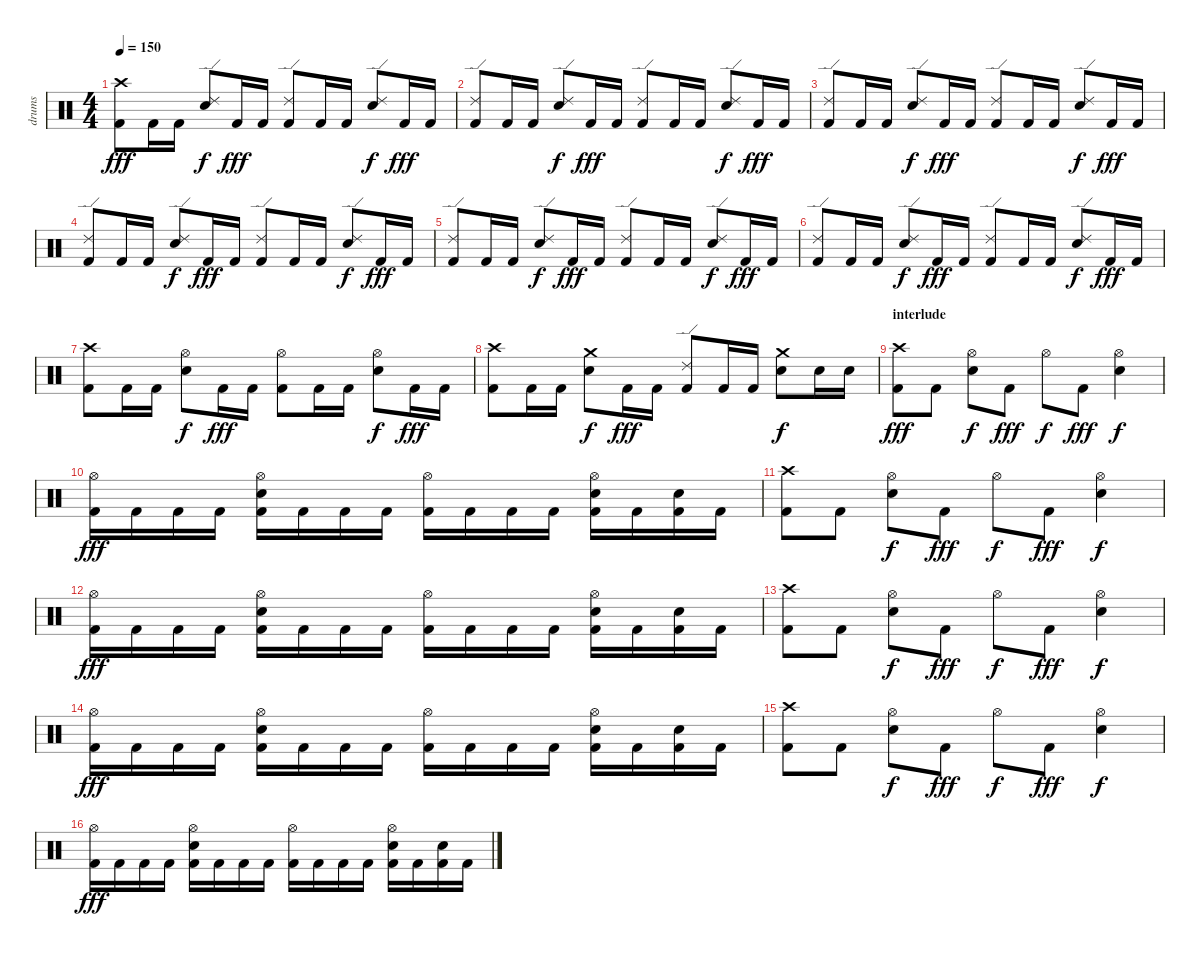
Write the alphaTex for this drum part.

\track ("drums" "drums") {instrument percussion}
\staff {score}
\articulation defaults
\ts (4 4)
\tempo 150
\clef neutral
\ks c
("Crash high (hit)" "Kick (hit) 2").8{dy fff} "Kick (hit) 2".16 "Kick (hit) 2".16 ("Ride (edge) 2" "Snare (hit) 2").8{dy f} "Kick (hit) 2".16{dy fff} "Kick (hit) 2".16 ("Ride (edge) 2" "Kick (hit) 2").8 "Kick (hit) 2".16 "Kick (hit) 2".16 ("Ride (edge) 2" "Snare (hit) 2").8{dy f} "Kick (hit) 2".16{dy fff} "Kick (hit) 2".16 |
("Ride (edge) 2" "Kick (hit) 2").8 "Kick (hit) 2".16 "Kick (hit) 2".16 ("Ride (edge) 2" "Snare (hit) 2").8{dy f} "Kick (hit) 2".16{dy fff} "Kick (hit) 2".16 ("Ride (edge) 2" "Kick (hit) 2").8 "Kick (hit) 2".16 "Kick (hit) 2".16 ("Ride (edge) 2" "Snare (hit) 2").8{dy f} "Kick (hit) 2".16{dy fff} "Kick (hit) 2".16 |
("Ride (edge) 2" "Kick (hit) 2").8 "Kick (hit) 2".16 "Kick (hit) 2".16 ("Ride (edge) 2" "Snare (hit) 2").8{dy f} "Kick (hit) 2".16{dy fff} "Kick (hit) 2".16 ("Ride (edge) 2" "Kick (hit) 2").8 "Kick (hit) 2".16 "Kick (hit) 2".16 ("Ride (edge) 2" "Snare (hit) 2").8{dy f} "Kick (hit) 2".16{dy fff} "Kick (hit) 2".16 |
("Ride (edge) 2" "Kick (hit) 2").8 "Kick (hit) 2".16 "Kick (hit) 2".16 ("Ride (edge) 2" "Snare (hit) 2").8{dy f} "Kick (hit) 2".16{dy fff} "Kick (hit) 2".16 ("Ride (edge) 2" "Kick (hit) 2").8 "Kick (hit) 2".16 "Kick (hit) 2".16 ("Ride (edge) 2" "Snare (hit) 2").8{dy f} "Kick (hit) 2".16{dy fff} "Kick (hit) 2".16 |
("Ride (edge) 2" "Kick (hit) 2").8 "Kick (hit) 2".16 "Kick (hit) 2".16 ("Ride (edge) 2" "Snare (hit) 2").8{dy f} "Kick (hit) 2".16{dy fff} "Kick (hit) 2".16 ("Ride (edge) 2" "Kick (hit) 2").8 "Kick (hit) 2".16 "Kick (hit) 2".16 ("Ride (edge) 2" "Snare (hit) 2").8{dy f} "Kick (hit) 2".16{dy fff} "Kick (hit) 2".16 |
("Ride (edge) 2" "Kick (hit) 2").8 "Kick (hit) 2".16 "Kick (hit) 2".16 ("Ride (edge) 2" "Snare (hit) 2").8{dy f} "Kick (hit) 2".16{dy fff} "Kick (hit) 2".16 ("Ride (edge) 2" "Kick (hit) 2").8 "Kick (hit) 2".16 "Kick (hit) 2".16 ("Ride (edge) 2" "Snare (hit) 2").8{dy f} "Kick (hit) 2".16{dy fff} "Kick (hit) 2".16 |
("Crash high (hit)" "Kick (hit) 2").8 "Kick (hit) 2".16 "Kick (hit) 2".16 ("Hi-Hat (open)" "Snare (hit) 2").8{dy f} "Kick (hit) 2".16{dy fff} "Kick (hit) 2".16 ("Hi-Hat (open)" "Kick (hit) 2").8 "Kick (hit) 2".16 "Kick (hit) 2".16 ("Hi-Hat (open)" "Snare (hit) 2").8{dy f} "Kick (hit) 2".16{dy fff} "Kick (hit) 2".16 |
("Crash high (hit)" "Kick (hit) 2").8 "Kick (hit) 2".16 "Kick (hit) 2".16 ("Crash medium (hit)" "Snare (hit) 2").8{dy f} "Kick (hit) 2".16{dy fff} "Kick (hit) 2".16 ("Ride (edge) 2" "Kick (hit) 2").8 "Kick (hit) 2".16 "Kick (hit) 2".16 ("Crash medium (hit)" "Snare (hit) 2").8{dy f} "Snare (hit) 2".16 "Snare (hit) 2".16 |
\section ("" "interlude")
("Crash high (hit)" "Kick (hit) 2").8{dy fff} "Kick (hit) 2".8 ("Hi-Hat (open)" "Snare (hit) 2").8{dy f} "Kick (hit) 2".8{dy fff} "Hi-Hat (open)".8{dy f} "Kick (hit) 2".8{dy fff} ("Hi-Hat (open)" "Snare (hit) 2").4{dy f} |
("Hi-Hat (open)" "Kick (hit) 2").16{dy fff} "Kick (hit) 2".16 "Kick (hit) 2".16 "Kick (hit) 2".16 ("Hi-Hat (open)" "Snare (hit) 2" "Kick (hit) 2").16 "Kick (hit) 2".16 "Kick (hit) 2".16 "Kick (hit) 2".16 ("Hi-Hat (open)" "Kick (hit) 2").16 "Kick (hit) 2".16 "Kick (hit) 2".16 "Kick (hit) 2".16 ("Hi-Hat (open)" "Snare (hit) 2" "Kick (hit) 2").16 "Kick (hit) 2".16 ("Snare (hit) 2" "Kick (hit) 2").16 "Kick (hit) 2".16 |
("Crash high (hit)" "Kick (hit) 2").8 "Kick (hit) 2".8 ("Hi-Hat (open)" "Snare (hit) 2").8{dy f} "Kick (hit) 2".8{dy fff} "Hi-Hat (open)".8{dy f} "Kick (hit) 2".8{dy fff} ("Hi-Hat (open)" "Snare (hit) 2").4{dy f} |
("Hi-Hat (open)" "Kick (hit) 2").16{dy fff} "Kick (hit) 2".16 "Kick (hit) 2".16 "Kick (hit) 2".16 ("Hi-Hat (open)" "Snare (hit) 2" "Kick (hit) 2").16 "Kick (hit) 2".16 "Kick (hit) 2".16 "Kick (hit) 2".16 ("Hi-Hat (open)" "Kick (hit) 2").16 "Kick (hit) 2".16 "Kick (hit) 2".16 "Kick (hit) 2".16 ("Hi-Hat (open)" "Snare (hit) 2" "Kick (hit) 2").16 "Kick (hit) 2".16 ("Snare (hit) 2" "Kick (hit) 2").16 "Kick (hit) 2".16 |
("Crash high (hit)" "Kick (hit) 2").8 "Kick (hit) 2".8 ("Hi-Hat (open)" "Snare (hit) 2").8{dy f} "Kick (hit) 2".8{dy fff} "Hi-Hat (open)".8{dy f} "Kick (hit) 2".8{dy fff} ("Hi-Hat (open)" "Snare (hit) 2").4{dy f} |
("Hi-Hat (open)" "Kick (hit) 2").16{dy fff} "Kick (hit) 2".16 "Kick (hit) 2".16 "Kick (hit) 2".16 ("Hi-Hat (open)" "Snare (hit) 2" "Kick (hit) 2").16 "Kick (hit) 2".16 "Kick (hit) 2".16 "Kick (hit) 2".16 ("Hi-Hat (open)" "Kick (hit) 2").16 "Kick (hit) 2".16 "Kick (hit) 2".16 "Kick (hit) 2".16 ("Hi-Hat (open)" "Snare (hit) 2" "Kick (hit) 2").16 "Kick (hit) 2".16 ("Snare (hit) 2" "Kick (hit) 2").16 "Kick (hit) 2".16 |
("Crash high (hit)" "Kick (hit) 2").8 "Kick (hit) 2".8 ("Hi-Hat (open)" "Snare (hit) 2").8{dy f} "Kick (hit) 2".8{dy fff} "Hi-Hat (open)".8{dy f} "Kick (hit) 2".8{dy fff} ("Hi-Hat (open)" "Snare (hit) 2").4{dy f} |
("Hi-Hat (open)" "Kick (hit) 2").16{dy fff} "Kick (hit) 2".16 "Kick (hit) 2".16 "Kick (hit) 2".16 ("Hi-Hat (open)" "Snare (hit) 2" "Kick (hit) 2").16 "Kick (hit) 2".16 "Kick (hit) 2".16 "Kick (hit) 2".16 ("Hi-Hat (open)" "Kick (hit) 2").16 "Kick (hit) 2".16 "Kick (hit) 2".16 "Kick (hit) 2".16 ("Hi-Hat (open)" "Snare (hit) 2" "Kick (hit) 2").16 "Kick (hit) 2".16 ("Snare (hit) 2" "Kick (hit) 2").16 "Kick (hit) 2".16
